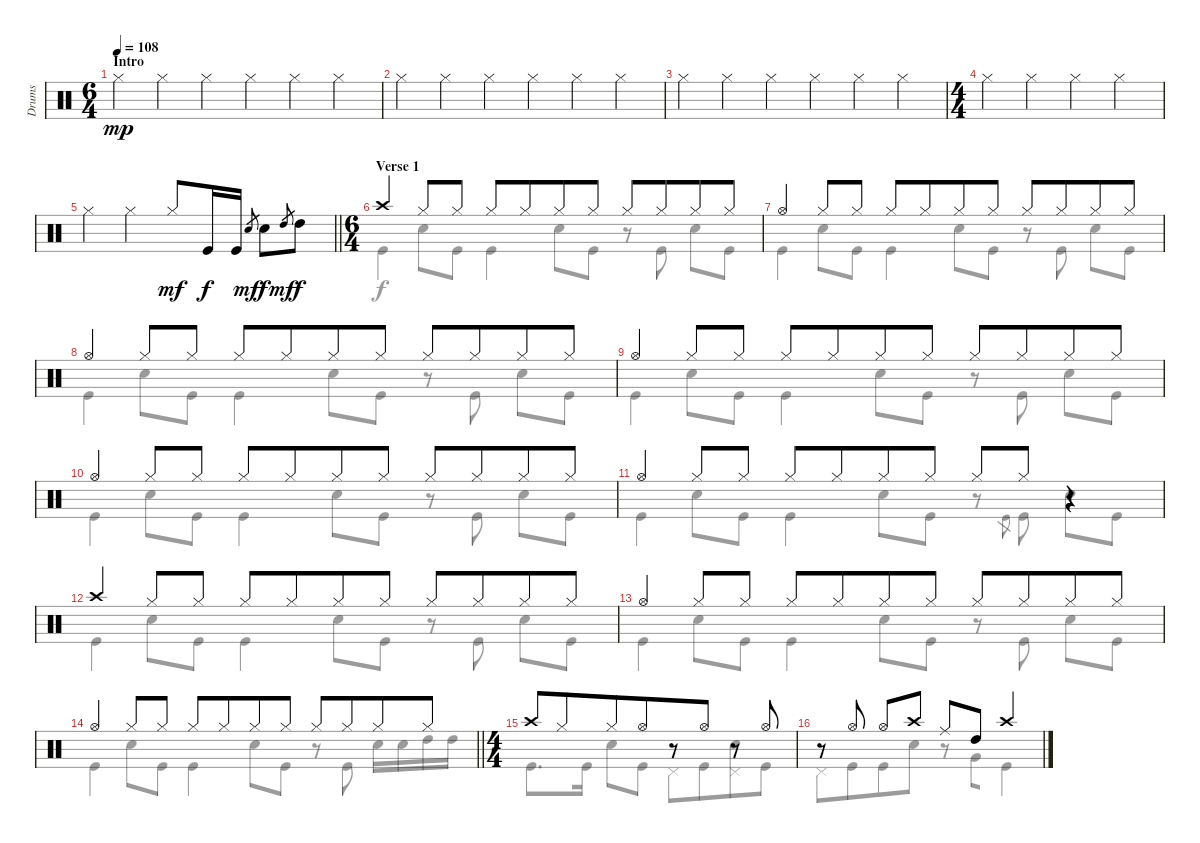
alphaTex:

\track ("Drums" "Drums") {instrument percussion}
\staff {score}
\articulation defaults
\voice
\ts (6 4)
\section ("" "Intro")
\tempo 108
\clef neutral
\ks c "Hi-Hat (closed)".4{dy mp} "Hi-Hat (closed)".4 "Hi-Hat (closed)".4 "Hi-Hat (closed)".4 "Hi-Hat (closed)".4 "Hi-Hat (closed)".4
|
"Hi-Hat (closed)".4 "Hi-Hat (closed)".4 "Hi-Hat (closed)".4 "Hi-Hat (closed)".4 "Hi-Hat (closed)".4 "Hi-Hat (closed)".4 |
"Hi-Hat (closed)".4 "Hi-Hat (closed)".4 "Hi-Hat (closed)".4 "Hi-Hat (closed)".4 "Hi-Hat (closed)".4 "Hi-Hat (closed)".4 |
\ts (4 4)
"Hi-Hat (closed)".4 "Hi-Hat (closed)".4 "Hi-Hat (closed)".4 "Hi-Hat (closed)".4 |
\barLineRight lightlight "Hi-Hat (closed)".4 "Hi-Hat (closed)".4 "Hi-Hat (closed)".8{dy mf beam Up} "Kick (hit)".16{dy f beam Up} "Kick (hit)".16{beam Up} "Snare (hit) 2".8{gr dy mf} "Snare (hit) 2".8{dy f} "High Tom (hit)".8{gr dy mf} "High Tom (hit)".8{dy f}
|
\ts (6 4)
\section ("" "Verse 1")
"Crash high (hit)".4{beam Up} "Hi-Hat (closed)".8{beam Up beam merge} "Hi-Hat (closed)".8{beam Up beam split} "Hi-Hat (closed)".8{beam Up beam merge} "Hi-Hat (closed)".8{beam Up beam merge} "Hi-Hat (closed)".8{beam Up beam merge} "Hi-Hat (closed)".8{beam Up beam split} "Hi-Hat (closed)".8{beam Up beam merge} "Hi-Hat (closed)".8{beam Up beam merge} "Hi-Hat (closed)".8{beam Up beam merge} "Hi-Hat (closed)".8{beam Up} |
"Hi-Hat (open)".4{beam Up beam split} "Hi-Hat (closed)".8{beam Up beam merge} "Hi-Hat (closed)".8{beam Up beam split} "Hi-Hat (closed)".8{beam Up beam merge} "Hi-Hat (closed)".8{beam Up beam merge} "Hi-Hat (closed)".8{beam Up beam merge} "Hi-Hat (closed)".8{beam Up beam split} "Hi-Hat (closed)".8{beam Up beam merge} "Hi-Hat (closed)".8{beam Up beam merge} "Hi-Hat (closed)".8{beam Up beam merge} "Hi-Hat (closed)".8{beam Up} |
"Hi-Hat (open)".4{beam Up beam split} "Hi-Hat (closed)".8{beam Up beam merge} "Hi-Hat (closed)".8{beam Up beam split} "Hi-Hat (closed)".8{beam Up beam merge} "Hi-Hat (closed)".8{beam Up beam merge} "Hi-Hat (closed)".8{beam Up beam merge} "Hi-Hat (closed)".8{beam Up beam split} "Hi-Hat (closed)".8{beam Up beam merge} "Hi-Hat (closed)".8{beam Up beam merge} "Hi-Hat (closed)".8{beam Up beam merge} "Hi-Hat (closed)".8{beam Up} |
"Hi-Hat (open)".4{beam Up beam split} "Hi-Hat (closed)".8{beam Up beam merge} "Hi-Hat (closed)".8{beam Up beam split} "Hi-Hat (closed)".8{beam Up beam merge} "Hi-Hat (closed)".8{beam Up beam merge} "Hi-Hat (closed)".8{beam Up beam merge} "Hi-Hat (closed)".8{beam Up beam split} "Hi-Hat (closed)".8{beam Up beam merge} "Hi-Hat (closed)".8{beam Up beam merge} "Hi-Hat (closed)".8{beam Up beam merge} "Hi-Hat (closed)".8{beam Up} |
"Hi-Hat (open)".4{beam Up} "Hi-Hat (closed)".8{beam Up beam merge} "Hi-Hat (closed)".8{beam Up beam split} "Hi-Hat (closed)".8{beam Up beam merge} "Hi-Hat (closed)".8{beam Up beam merge} "Hi-Hat (closed)".8{beam Up beam merge} "Hi-Hat (closed)".8{beam Up beam split} "Hi-Hat (closed)".8{beam Up beam merge} "Hi-Hat (closed)".8{beam Up beam merge} "Hi-Hat (closed)".8{beam Up beam merge} "Hi-Hat (closed)".8{beam Up} |
"Hi-Hat (open)".4{beam Up} "Hi-Hat (closed)".8{beam Up beam merge} "Hi-Hat (closed)".8{beam Up beam split} "Hi-Hat (closed)".8{beam Up beam merge} "Hi-Hat (closed)".8{beam Up beam merge} "Hi-Hat (closed)".8{beam Up beam merge} "Hi-Hat (closed)".8{beam Up beam split} "Hi-Hat (closed)".8{beam Up beam merge} "Hi-Hat (closed)".8{beam Up} r.4 |
"Crash high (hit)".4{beam Up} "Hi-Hat (closed)".8{beam Up beam merge} "Hi-Hat (closed)".8{beam Up beam split} "Hi-Hat (closed)".8{beam Up beam merge} "Hi-Hat (closed)".8{beam Up beam merge} "Hi-Hat (closed)".8{beam Up beam merge} "Hi-Hat (closed)".8{beam Up beam split} "Hi-Hat (closed)".8{beam Up beam merge} "Hi-Hat (closed)".8{beam Up beam merge} "Hi-Hat (closed)".8{beam Up beam merge} "Hi-Hat (closed)".8{beam Up} |
"Hi-Hat (open)".4{beam Up} "Hi-Hat (closed)".8{beam Up beam merge} "Hi-Hat (closed)".8{beam Up beam split} "Hi-Hat (closed)".8{beam Up beam merge} "Hi-Hat (closed)".8{beam Up beam merge} "Hi-Hat (closed)".8{beam Up beam merge} "Hi-Hat (closed)".8{beam Up beam split} "Hi-Hat (closed)".8{beam Up beam merge} "Hi-Hat (closed)".8{beam Up beam merge} "Hi-Hat (closed)".8{beam Up beam merge} "Hi-Hat (closed)".8{beam Up} |
\barLineRight lightlight "Hi-Hat (open)".4{beam Up} "Hi-Hat (closed)".8{beam Up beam merge} "Hi-Hat (closed)".8{beam Up beam split} "Hi-Hat (closed)".8{beam Up beam merge} "Hi-Hat (closed)".8{beam Up beam merge} "Hi-Hat (closed)".8{beam Up beam merge} "Hi-Hat (closed)".8{beam Up beam split} "Hi-Hat (closed)".8{beam Up beam merge} "Hi-Hat (closed)".8{beam Up beam merge} "Hi-Hat (closed)".8{beam Up beam merge} "Hi-Hat (closed)".8{beam Up}
|
\ts (4 4)
"Crash high (hit)".8{beam Up} "Hi-Hat (closed)".8{beam Up beam merge} "Hi-Hat (closed)".8{beam Up beam merge} "Hi-Hat (open)".8{beam Up beam merge} r.8{beam Up beam merge} "Hi-Hat (open)".8{beam Up beam split} r.8{beam Up beam merge} "Hi-Hat (open)".8{beam Up} |
r.8 "Hi-Hat (open)".8 "Hi-Hat (open)".8 "Crash high (hit)".8 "Ride (middle)".8 "High Tom (hit)".8 "Crash high (hit)".4
\voice
\clef neutral
\ottava regular
\simile none
\ks c
|
|
|
|
\barLineRight lightlight
|
"Kick (hit)".4 "Snare (hit) 2".8 "Kick (hit)".8 "Kick (hit)".4 "Snare (hit) 2".8 "Kick (hit)".8 r.8 "Kick (hit)".8 "Snare (hit) 2".8 "Kick (hit)".8 |
"Kick (hit)".4 "Snare (hit) 2".8 "Kick (hit)".8 "Kick (hit)".4 "Snare (hit) 2".8 "Kick (hit)".8 r.8 "Kick (hit)".8 "Snare (hit) 2".8 "Kick (hit)".8 |
"Kick (hit)".4 "Snare (hit) 2".8 "Kick (hit)".8 "Kick (hit)".4 "Snare (hit) 2".8 "Kick (hit)".8 r.8 "Kick (hit)".8 "Snare (hit) 2".8 "Kick (hit)".8 |
"Kick (hit)".4 "Snare (hit) 2".8 "Kick (hit)".8 "Kick (hit)".4 "Snare (hit) 2".8 "Kick (hit)".8 r.8 "Kick (hit)".8 "Snare (hit) 2".8 "Kick (hit)".8 |
"Kick (hit)".4 "Snare (hit) 2".8 "Kick (hit)".8 "Kick (hit)".4 "Snare (hit) 2".8 "Kick (hit)".8 r.8 "Kick (hit)".8 "Snare (hit) 2".8 "Kick (hit)".8 |
"Kick (hit)".4 "Snare (hit) 2".8 "Kick (hit)".8 "Kick (hit)".4 "Snare (hit) 2".8 "Kick (hit)".8 r.8 "Kick (hit)".8{gr} "Kick (hit)".8 "Snare (hit) 2".8 "Kick (hit)".8 |
"Kick (hit)".4 "Snare (hit) 2".8 "Kick (hit)".8 "Kick (hit)".4 "Snare (hit) 2".8 "Kick (hit)".8 r.8 "Kick (hit)".8 "Snare (hit) 2".8 "Kick (hit)".8 |
"Kick (hit)".4 "Snare (hit) 2".8 "Kick (hit)".8 "Kick (hit)".4 "Snare (hit) 2".8 "Kick (hit)".8 r.8 "Kick (hit)".8 "Snare (hit) 2".8 "Kick (hit)".8 |
\barLineRight lightlight "Kick (hit)".4 "Snare (hit) 2".8 "Kick (hit)".8 "Kick (hit)".4 "Snare (hit) 2".8 "Kick (hit)".8
r.8 "Kick (hit)".8{beam split} "Snare (hit) 2".16 "Snare (hit) 2".16 "High Tom (hit)".16 "High Tom (hit)".16 |
"Kick (hit)".8{d} "Kick (hit)".16 "Snare (hit) 2".8 "Kick (hit)".8 "Pedal Hi-Hat (hit)".8 "Kick (hit)".8{beam merge} ("Snare (hit) 2" "Pedal Hi-Hat (hit)").8 "Kick (hit)".8 |
"Pedal Hi-Hat (hit)".8 "Kick (hit)".8{beam merge} "Kick (hit)".8 "Snare (hit) 2".8 r.8 "Very Low Tom (hit)".8{beam merge} "Kick (hit)".4
